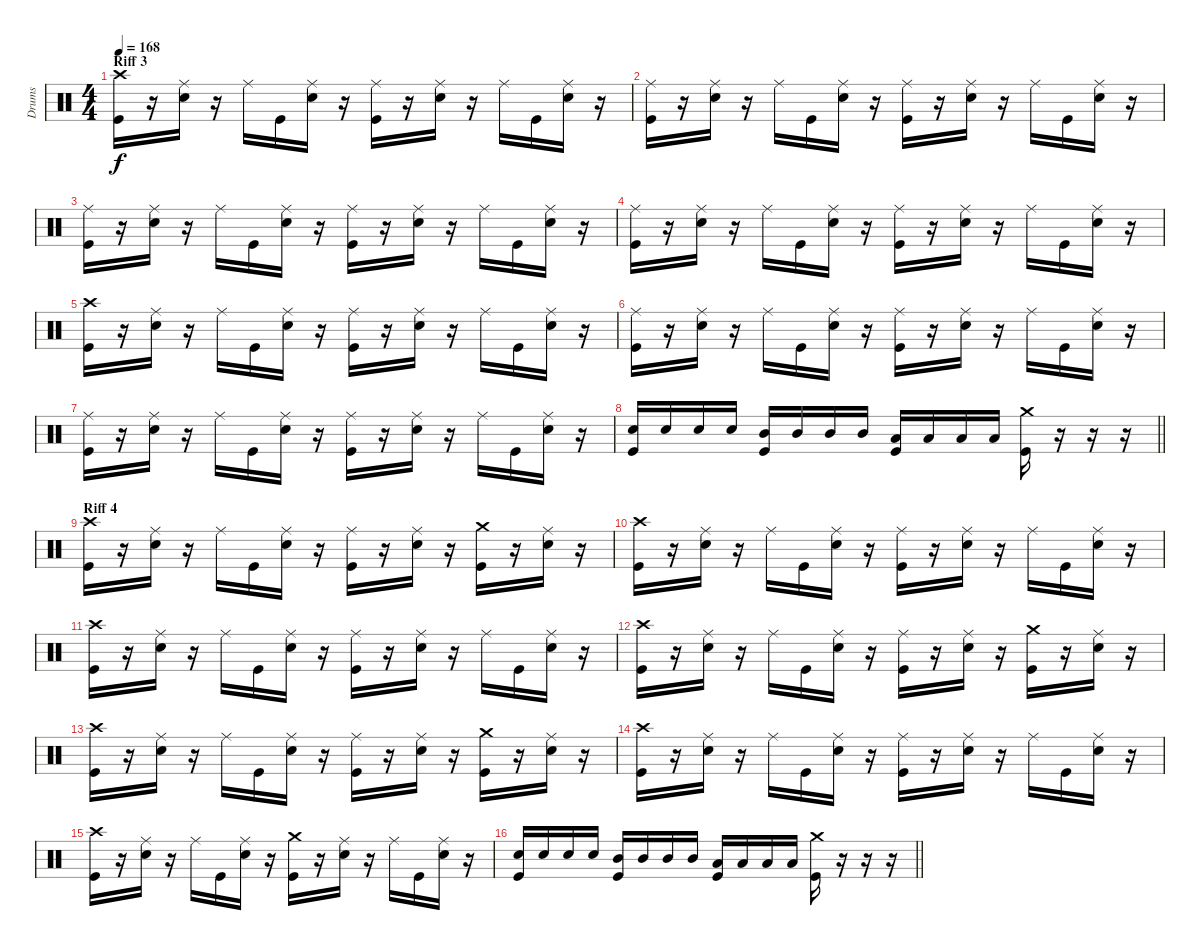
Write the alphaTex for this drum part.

\track ("Drums" "Drums") {instrument percussion}
\staff {score}
\articulation defaults
\ts (4 4)
\section ("" "Riff 3")
\tempo 168
\clef neutral
\ks c
("Crash high (hit)" "Kick (hit)").16{dy f} r.16 ("Ride (middle)" "Electric Snare (hit)").16 r.16 "Ride (middle)".16 "Kick (hit)".16 ("Ride (middle)" "Electric Snare (hit)").16 r.16 ("Ride (middle)" "Kick (hit)").16 r.16 ("Ride (middle)" "Electric Snare (hit)").16 r.16 "Ride (middle)".16 "Kick (hit)".16 ("Ride (middle)" "Electric Snare (hit)").16 r.16 |
("Ride (middle)" "Kick (hit)").16 r.16 ("Ride (middle)" "Electric Snare (hit)").16 r.16 "Ride (middle)".16 "Kick (hit)".16 ("Ride (middle)" "Electric Snare (hit)").16 r.16 ("Ride (middle)" "Kick (hit)").16 r.16 ("Ride (middle)" "Electric Snare (hit)").16 r.16 "Ride (middle)".16 "Kick (hit)".16 ("Ride (middle)" "Electric Snare (hit)").16 r.16 |
("Ride (middle)" "Kick (hit)").16 r.16 ("Ride (middle)" "Electric Snare (hit)").16 r.16 "Ride (middle)".16 "Kick (hit)".16 ("Ride (middle)" "Electric Snare (hit)").16 r.16 ("Ride (middle)" "Kick (hit)").16 r.16 ("Ride (middle)" "Electric Snare (hit)").16 r.16 "Ride (middle)".16 "Kick (hit)".16 ("Ride (middle)" "Electric Snare (hit)").16 r.16 |
("Ride (middle)" "Kick (hit)").16 r.16 ("Ride (middle)" "Electric Snare (hit)").16 r.16 "Ride (middle)".16 "Kick (hit)".16 ("Ride (middle)" "Electric Snare (hit)").16 r.16 ("Ride (middle)" "Kick (hit)").16 r.16 ("Ride (middle)" "Electric Snare (hit)").16 r.16 "Ride (middle)".16 "Kick (hit)".16 ("Ride (middle)" "Electric Snare (hit)").16 r.16 |
("Crash high (hit)" "Kick (hit)").16 r.16 ("Ride (middle)" "Electric Snare (hit)").16 r.16 "Ride (middle)".16 "Kick (hit)".16 ("Ride (middle)" "Electric Snare (hit)").16 r.16 ("Ride (middle)" "Kick (hit)").16 r.16 ("Ride (middle)" "Electric Snare (hit)").16 r.16 "Ride (middle)".16 "Kick (hit)".16 ("Ride (middle)" "Electric Snare (hit)").16 r.16 |
("Ride (middle)" "Kick (hit)").16 r.16 ("Ride (middle)" "Electric Snare (hit)").16 r.16 "Ride (middle)".16 "Kick (hit)".16 ("Ride (middle)" "Electric Snare (hit)").16 r.16 ("Ride (middle)" "Kick (hit)").16 r.16 ("Ride (middle)" "Electric Snare (hit)").16 r.16 "Ride (middle)".16 "Kick (hit)".16 ("Ride (middle)" "Electric Snare (hit)").16 r.16 |
("Ride (middle)" "Kick (hit)").16 r.16 ("Ride (middle)" "Electric Snare (hit)").16 r.16 "Ride (middle)".16 "Kick (hit)".16 ("Ride (middle)" "Electric Snare (hit)").16 r.16 ("Ride (middle)" "Kick (hit)").16 r.16 ("Ride (middle)" "Electric Snare (hit)").16 r.16 "Ride (middle)".16 "Kick (hit)".16 ("Ride (middle)" "Electric Snare (hit)").16 r.16 |
\barLineRight lightlight
("Electric Snare (hit)" "Kick (hit)").16 "Electric Snare (hit)".16 "Electric Snare (hit)".16 "Electric Snare (hit)".16 ("Mid Tom (hit)" "Kick (hit)").16 "Mid Tom (hit)".16 "Mid Tom (hit)".16 "Mid Tom (hit)".16 ("Low Tom (hit)" "Kick (hit)").16 "Low Tom (hit)".16 "Low Tom (hit)".16 "Low Tom (hit)".16 ("Crash medium (hit)" "Kick (hit)").16 r.16 r.16 r.16 |
\section ("" "Riff 4")
("Crash high (hit)" "Kick (hit)").16 r.16 ("Ride (middle)" "Electric Snare (hit)").16 r.16 "Ride (middle)".16 "Kick (hit)".16 ("Ride (middle)" "Electric Snare (hit)").16 r.16 ("Ride (middle)" "Kick (hit)").16 r.16 ("Ride (middle)" "Electric Snare (hit)").16 r.16 ("Crash medium (hit)" "Kick (hit)").16 r.16 ("Ride (middle)" "Electric Snare (hit)").16 r.16 |
("Crash high (hit)" "Kick (hit)").16 r.16 ("Ride (middle)" "Electric Snare (hit)").16 r.16 "Ride (middle)".16 "Kick (hit)".16 ("Ride (middle)" "Electric Snare (hit)").16 r.16 ("Ride (middle)" "Kick (hit)").16 r.16 ("Ride (middle)" "Electric Snare (hit)").16 r.16 "Ride (middle)".16 "Kick (hit)".16 ("Ride (middle)" "Electric Snare (hit)").16 r.16 |
("Crash high (hit)" "Kick (hit)").16 r.16 ("Ride (middle)" "Electric Snare (hit)").16 r.16 "Ride (middle)".16 "Kick (hit)".16 ("Ride (middle)" "Electric Snare (hit)").16 r.16 ("Ride (middle)" "Kick (hit)").16 r.16 ("Ride (middle)" "Electric Snare (hit)").16 r.16 "Ride (middle)".16 "Kick (hit)".16 ("Ride (middle)" "Electric Snare (hit)").16 r.16 |
("Crash high (hit)" "Kick (hit)").16 r.16 ("Ride (middle)" "Electric Snare (hit)").16 r.16 "Ride (middle)".16 "Kick (hit)".16 ("Ride (middle)" "Electric Snare (hit)").16 r.16 ("Ride (middle)" "Kick (hit)").16 r.16 ("Ride (middle)" "Electric Snare (hit)").16 r.16 ("Crash medium (hit)" "Kick (hit)").16 r.16 ("Ride (middle)" "Electric Snare (hit)").16 r.16 |
("Crash high (hit)" "Kick (hit)").16 r.16 ("Ride (middle)" "Electric Snare (hit)").16 r.16 "Ride (middle)".16 "Kick (hit)".16 ("Ride (middle)" "Electric Snare (hit)").16 r.16 ("Ride (middle)" "Kick (hit)").16 r.16 ("Ride (middle)" "Electric Snare (hit)").16 r.16 ("Crash medium (hit)" "Kick (hit)").16 r.16 ("Ride (middle)" "Electric Snare (hit)").16 r.16 |
("Crash high (hit)" "Kick (hit)").16 r.16 ("Ride (middle)" "Electric Snare (hit)").16 r.16 "Ride (middle)".16 "Kick (hit)".16 ("Ride (middle)" "Electric Snare (hit)").16 r.16 ("Ride (middle)" "Kick (hit)").16 r.16 ("Ride (middle)" "Electric Snare (hit)").16 r.16 "Ride (middle)".16 "Kick (hit)".16 ("Ride (middle)" "Electric Snare (hit)").16 r.16 |
("Crash high (hit)" "Kick (hit)").16 r.16 ("Ride (middle)" "Electric Snare (hit)").16 r.16 "Ride (middle)".16 "Kick (hit)".16 ("Ride (middle)" "Electric Snare (hit)").16 r.16 ("Crash medium (hit)" "Kick (hit)").16 r.16 ("Ride (middle)" "Electric Snare (hit)").16 r.16 "Ride (middle)".16 "Kick (hit)".16 ("Ride (middle)" "Electric Snare (hit)").16 r.16 |
\barLineRight lightlight
("Electric Snare (hit)" "Kick (hit)").16 "Electric Snare (hit)".16 "Electric Snare (hit)".16 "Electric Snare (hit)".16 ("Mid Tom (hit)" "Kick (hit)").16 "Mid Tom (hit)".16 "Mid Tom (hit)".16 "Mid Tom (hit)".16 ("Low Tom (hit)" "Kick (hit)").16 "Low Tom (hit)".16 "Low Tom (hit)".16 "Low Tom (hit)".16 ("Crash medium (hit)" "Kick (hit)").16 r.16 r.16 r.16
